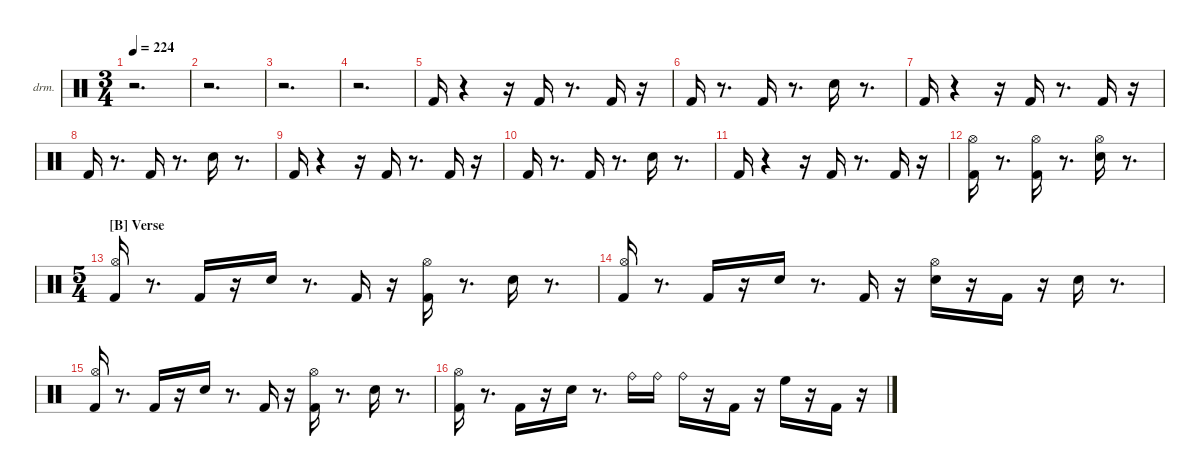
\hideDynamics
\bracketExtendMode nobrackets
\firstSystemTrackNameOrientation horizontal
\otherSystemsTrackNameOrientation horizontal
\track ("Drums" "drm.") {instrument percussion}
\staff {score}
\articulation defaults
\ts (3 4)
\tempo 224
\clef neutral
\ks aminor
r.2{d dy ff beam Down} |
r.2{d beam Down} |
r.2{d beam Down} |
r.2{d beam Down} |
"Kick (hit) 2".16{beam Up} r.4{beam Up} r.16{beam Up} "Kick (hit) 2".16{dy f beam Up} r.8{d beam Up} "Kick (hit) 2".16{beam Up} r.16{beam Up} |
"Kick (hit) 2".16{dy ff beam Up} r.8{d beam Up} "Kick (hit) 2".16{dy f beam Up} r.8{d beam Up} "Snare (hit) 2".16{dy fff beam Down} r.8{d beam Down} |
"Kick (hit) 2".16{dy ff beam Up} r.4{beam Up} r.16{beam Up} "Kick (hit) 2".16{dy f beam Up} r.8{d beam Up} "Kick (hit) 2".16{beam Up} r.16{beam Up} |
"Kick (hit) 2".16{dy ff beam Up} r.8{d beam Up} "Kick (hit) 2".16{dy f beam Up} r.8{d beam Up} "Snare (hit) 2".16{dy fff beam Down} r.8{d beam Down} |
"Kick (hit) 2".16{dy ff beam Up} r.4{beam Up} r.16{beam Up} "Kick (hit) 2".16{dy f beam Up} r.8{d beam Up} "Kick (hit) 2".16{beam Up} r.16{beam Up} |
"Kick (hit) 2".16{dy ff beam Up} r.8{d beam Up} "Kick (hit) 2".16{dy f beam Up} r.8{d beam Up} "Snare (hit) 2".16{dy fff beam Down} r.8{d beam Down} |
"Kick (hit) 2".16{dy ff beam Up} r.4{beam Up} r.16{beam Up} "Kick (hit) 2".16{dy f beam Up} r.8{d beam Up} "Kick (hit) 2".16{beam Up} r.16{beam Up} |
("Kick (hit) 2" "Hi-Hat (open)"{acc #}).16{dy ff beam Down} r.8{d beam Down} ("Kick (hit) 2" "Hi-Hat (open)"{acc #}).16{dy f beam Down} r.8{d beam Down} ("Snare (hit) 2" "Hi-Hat (open)"{acc #}).16{dy fff beam Down} r.8{d beam Down} |
\ts (5 4)
\section ("B" "Verse")
("Kick (hit) 2" "Hi-Hat (open)"{acc #}).16{beam Up} r.8{d beam Up} "Kick (hit) 2".16{dy f beam Up} r.16{beam Up} "Snare (hit) 2".16{dy ff beam Up} r.8{d beam Up} "Kick (hit) 2".16{dy f beam Up} r.16{beam Up} ("Kick (hit) 2" "Hi-Hat (open)"{acc #}).16{dy ff beam Down} r.8{d beam Down} "Snare (hit) 2".16{dy f beam Down} r.8{d beam Down} |
("Kick (hit) 2" "Hi-Hat (open)"{acc #}).16{dy fff beam Up} r.8{d beam Up} "Kick (hit) 2".16{dy mf beam Up} r.16{beam Up} "Snare (hit) 2".16{dy ff beam Up} r.8{d beam Up} "Kick (hit) 2".16{dy f beam Up} r.16{beam Up} ("Snare (hit) 2" "Hi-Hat (open)"{acc #}).16{dy fff beam Down} r.16{beam Down} "Kick (hit) 2".16{dy f beam Down} r.16{beam Down} "Snare (hit) 2".16{dy fff beam Down} r.8{d beam Down} |
("Kick (hit) 2" "Hi-Hat (open)"{acc #}).16{beam Up} r.8{d beam Up} "Kick (hit) 2".16{dy f beam Up} r.16{beam Up} "Snare (hit) 2".16{dy ff beam Up} r.8{d beam Up} "Kick (hit) 2".16{dy f beam Up} r.16{beam Up} ("Kick (hit) 2" "Hi-Hat (open)"{acc #}).16{dy ff beam Down} r.8{d beam Down} "Snare (hit) 2".16{dy f beam Down} r.8{d beam Down} |
("Kick (hit) 2" "Hi-Hat (open)"{acc #}).16{dy fff beam Down} r.8{d beam Down} "Kick (hit) 2".16{dy mf beam Down} r.16{beam Down} "Snare (hit) 2".16{dy ff beam Down} r.8{d beam Down} "Ride (bell)".16{dy f beam Down} "Ride (bell)".16{dy mf beam Down} "Ride (bell)".16{dy fff beam Down} r.16{beam Down} "Kick (hit) 2".16{beam Down} r.16{beam Down} "High Floor Tom (hit)".16{dy ff beam Down} r.16{beam Down} "Kick (hit) 2".16{dy mf beam Down} r.16{beam Down}
